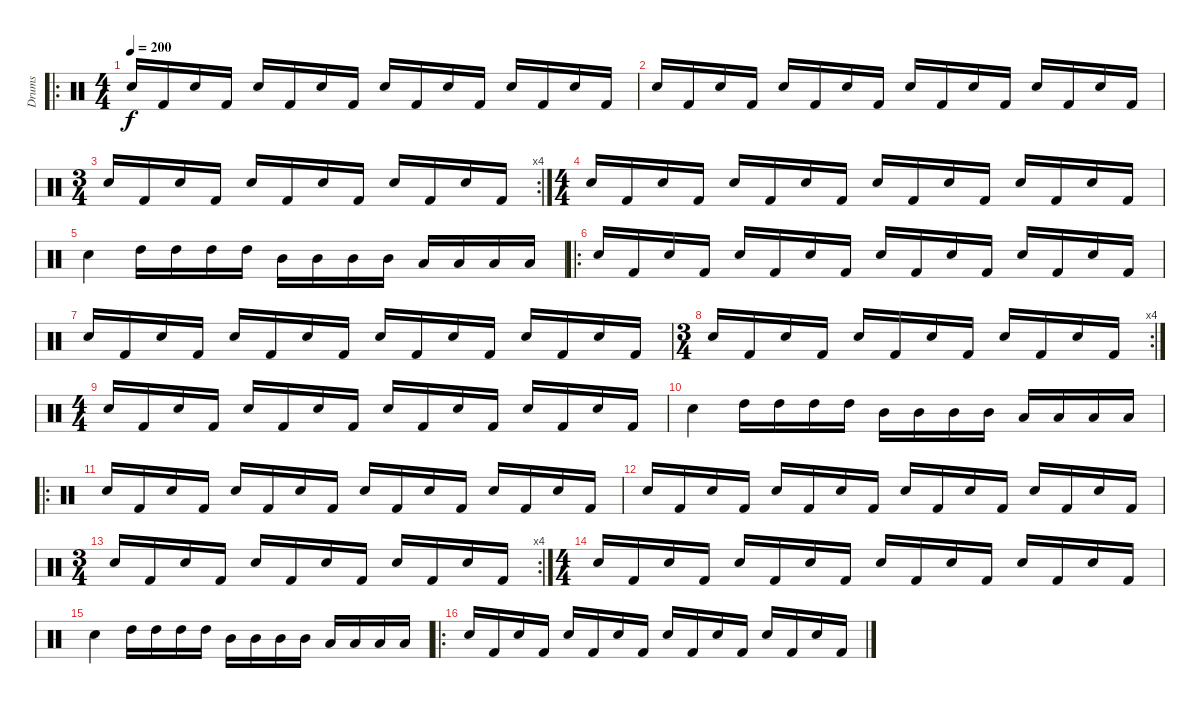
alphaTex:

\track ("Drums" "Drums") {instrument percussion}
\staff {score}
\articulation defaults
\ro
\ts (4 4)
\tempo 200
\clef neutral
\ks c "Electric Snare (hit)".16{dy f} "Kick (hit) 2".16 "Electric Snare (hit)".16 "Kick (hit) 2".16 "Electric Snare (hit)".16 "Kick (hit) 2".16 "Electric Snare (hit)".16 "Kick (hit) 2".16 "Electric Snare (hit)".16 "Kick (hit) 2".16 "Electric Snare (hit)".16 "Kick (hit) 2".16 "Electric Snare (hit)".16 "Kick (hit) 2".16 "Electric Snare (hit)".16 "Kick (hit) 2".16
|
"Electric Snare (hit)".16 "Kick (hit) 2".16 "Electric Snare (hit)".16 "Kick (hit) 2".16 "Electric Snare (hit)".16 "Kick (hit) 2".16 "Electric Snare (hit)".16 "Kick (hit) 2".16 "Electric Snare (hit)".16 "Kick (hit) 2".16 "Electric Snare (hit)".16 "Kick (hit) 2".16 "Electric Snare (hit)".16 "Kick (hit) 2".16 "Electric Snare (hit)".16 "Kick (hit) 2".16 |
\rc 4
\ts (3 4)
"Electric Snare (hit)".16 "Kick (hit) 2".16 "Electric Snare (hit)".16 "Kick (hit) 2".16 "Electric Snare (hit)".16 "Kick (hit) 2".16 "Electric Snare (hit)".16 "Kick (hit) 2".16 "Electric Snare (hit)".16 "Kick (hit) 2".16 "Electric Snare (hit)".16 "Kick (hit) 2".16 |
\ts (4 4)
"Electric Snare (hit)".16 "Kick (hit) 2".16 "Electric Snare (hit)".16 "Kick (hit) 2".16 "Electric Snare (hit)".16 "Kick (hit) 2".16 "Electric Snare (hit)".16 "Kick (hit) 2".16 "Electric Snare (hit)".16 "Kick (hit) 2".16 "Electric Snare (hit)".16 "Kick (hit) 2".16 "Electric Snare (hit)".16 "Kick (hit) 2".16 "Electric Snare (hit)".16 "Kick (hit) 2".16 |
"Electric Snare (hit)".4 "High Tom (hit)".16 "High Tom (hit)".16 "High Tom (hit)".16 "High Tom (hit)".16 "Mid Tom (hit)".16 "Mid Tom (hit)".16 "Mid Tom (hit)".16 "Mid Tom (hit)".16 "Low Tom (hit)".16 "Low Tom (hit)".16 "Low Tom (hit)".16 "Low Tom (hit)".16 |
\ro "Electric Snare (hit)".16 "Kick (hit) 2".16 "Electric Snare (hit)".16 "Kick (hit) 2".16 "Electric Snare (hit)".16 "Kick (hit) 2".16 "Electric Snare (hit)".16 "Kick (hit) 2".16 "Electric Snare (hit)".16 "Kick (hit) 2".16 "Electric Snare (hit)".16 "Kick (hit) 2".16 "Electric Snare (hit)".16 "Kick (hit) 2".16 "Electric Snare (hit)".16 "Kick (hit) 2".16
|
"Electric Snare (hit)".16 "Kick (hit) 2".16 "Electric Snare (hit)".16 "Kick (hit) 2".16 "Electric Snare (hit)".16 "Kick (hit) 2".16 "Electric Snare (hit)".16 "Kick (hit) 2".16 "Electric Snare (hit)".16 "Kick (hit) 2".16 "Electric Snare (hit)".16 "Kick (hit) 2".16 "Electric Snare (hit)".16 "Kick (hit) 2".16 "Electric Snare (hit)".16 "Kick (hit) 2".16 |
\rc 4
\ts (3 4)
"Electric Snare (hit)".16 "Kick (hit) 2".16 "Electric Snare (hit)".16 "Kick (hit) 2".16 "Electric Snare (hit)".16 "Kick (hit) 2".16 "Electric Snare (hit)".16 "Kick (hit) 2".16 "Electric Snare (hit)".16 "Kick (hit) 2".16 "Electric Snare (hit)".16 "Kick (hit) 2".16 |
\ts (4 4)
"Electric Snare (hit)".16 "Kick (hit) 2".16 "Electric Snare (hit)".16 "Kick (hit) 2".16 "Electric Snare (hit)".16 "Kick (hit) 2".16 "Electric Snare (hit)".16 "Kick (hit) 2".16 "Electric Snare (hit)".16 "Kick (hit) 2".16 "Electric Snare (hit)".16 "Kick (hit) 2".16 "Electric Snare (hit)".16 "Kick (hit) 2".16 "Electric Snare (hit)".16 "Kick (hit) 2".16 |
"Electric Snare (hit)".4 "High Tom (hit)".16 "High Tom (hit)".16 "High Tom (hit)".16 "High Tom (hit)".16 "Mid Tom (hit)".16 "Mid Tom (hit)".16 "Mid Tom (hit)".16 "Mid Tom (hit)".16 "Low Tom (hit)".16 "Low Tom (hit)".16 "Low Tom (hit)".16 "Low Tom (hit)".16 |
\ro "Electric Snare (hit)".16 "Kick (hit) 2".16 "Electric Snare (hit)".16 "Kick (hit) 2".16 "Electric Snare (hit)".16 "Kick (hit) 2".16 "Electric Snare (hit)".16 "Kick (hit) 2".16 "Electric Snare (hit)".16 "Kick (hit) 2".16 "Electric Snare (hit)".16 "Kick (hit) 2".16 "Electric Snare (hit)".16 "Kick (hit) 2".16 "Electric Snare (hit)".16 "Kick (hit) 2".16
|
"Electric Snare (hit)".16 "Kick (hit) 2".16 "Electric Snare (hit)".16 "Kick (hit) 2".16 "Electric Snare (hit)".16 "Kick (hit) 2".16 "Electric Snare (hit)".16 "Kick (hit) 2".16 "Electric Snare (hit)".16 "Kick (hit) 2".16 "Electric Snare (hit)".16 "Kick (hit) 2".16 "Electric Snare (hit)".16 "Kick (hit) 2".16 "Electric Snare (hit)".16 "Kick (hit) 2".16 |
\rc 4
\ts (3 4)
"Electric Snare (hit)".16 "Kick (hit) 2".16 "Electric Snare (hit)".16 "Kick (hit) 2".16 "Electric Snare (hit)".16 "Kick (hit) 2".16 "Electric Snare (hit)".16 "Kick (hit) 2".16 "Electric Snare (hit)".16 "Kick (hit) 2".16 "Electric Snare (hit)".16 "Kick (hit) 2".16 |
\ts (4 4)
"Electric Snare (hit)".16 "Kick (hit) 2".16 "Electric Snare (hit)".16 "Kick (hit) 2".16 "Electric Snare (hit)".16 "Kick (hit) 2".16 "Electric Snare (hit)".16 "Kick (hit) 2".16 "Electric Snare (hit)".16 "Kick (hit) 2".16 "Electric Snare (hit)".16 "Kick (hit) 2".16 "Electric Snare (hit)".16 "Kick (hit) 2".16 "Electric Snare (hit)".16 "Kick (hit) 2".16 |
"Electric Snare (hit)".4 "High Tom (hit)".16 "High Tom (hit)".16 "High Tom (hit)".16 "High Tom (hit)".16 "Mid Tom (hit)".16 "Mid Tom (hit)".16 "Mid Tom (hit)".16 "Mid Tom (hit)".16 "Low Tom (hit)".16 "Low Tom (hit)".16 "Low Tom (hit)".16 "Low Tom (hit)".16 |
\ro "Electric Snare (hit)".16 "Kick (hit) 2".16 "Electric Snare (hit)".16 "Kick (hit) 2".16 "Electric Snare (hit)".16 "Kick (hit) 2".16 "Electric Snare (hit)".16 "Kick (hit) 2".16 "Electric Snare (hit)".16 "Kick (hit) 2".16 "Electric Snare (hit)".16 "Kick (hit) 2".16 "Electric Snare (hit)".16 "Kick (hit) 2".16 "Electric Snare (hit)".16 "Kick (hit) 2".16
